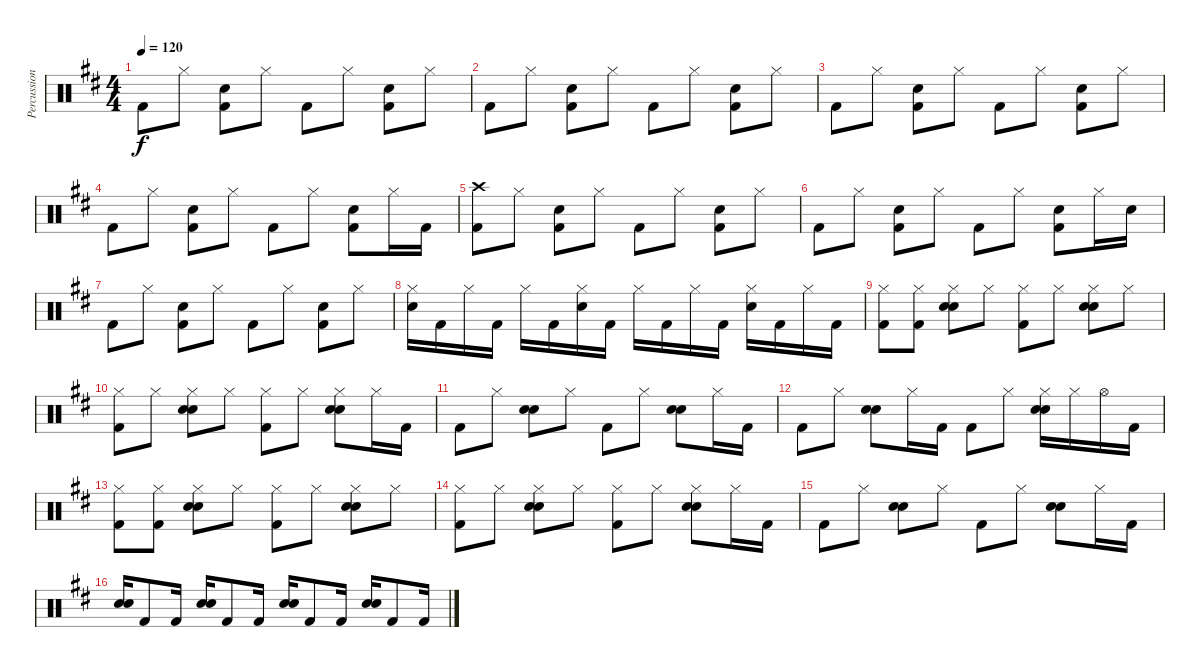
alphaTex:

\track ("Percussion" "Percussion") {instrument percussion}
\staff {score}
\articulation defaults
\ts (4 4)
\tempo 120
\clef neutral
\ks d "Kick (hit) 2".8{dy f} "Hi-Hat (closed)".8
("Snare (hit) 2" "Kick (hit) 2").8 "Hi-Hat (closed)".8 "Kick (hit) 2".8 "Hi-Hat (closed)".8 ("Snare (hit) 2" "Kick (hit) 2").8 "Hi-Hat (closed)".8 |
"Kick (hit) 2".8 "Hi-Hat (closed)".8 ("Snare (hit) 2" "Kick (hit) 2").8 "Hi-Hat (closed)".8 "Kick (hit) 2".8 "Hi-Hat (closed)".8 ("Snare (hit) 2" "Kick (hit) 2").8 "Hi-Hat (closed)".8 |
"Kick (hit) 2".8 "Hi-Hat (closed)".8 ("Snare (hit) 2" "Kick (hit) 2").8 "Hi-Hat (closed)".8 "Kick (hit) 2".8 "Hi-Hat (closed)".8 ("Snare (hit) 2" "Kick (hit) 2").8 "Hi-Hat (closed)".8 |
"Kick (hit) 2".8 "Hi-Hat (closed)".8 ("Snare (hit) 2" "Kick (hit) 2").8 "Hi-Hat (closed)".8 "Kick (hit) 2".8 "Hi-Hat (closed)".8 ("Snare (hit) 2" "Kick (hit) 2").8 "Hi-Hat (closed)".16 "Kick (hit) 2".16 |
("Crash high (hit)" "Kick (hit) 2").8 "Hi-Hat (closed)".8 ("Snare (hit) 2" "Kick (hit) 2").8 "Hi-Hat (closed)".8 "Kick (hit) 2".8 "Hi-Hat (closed)".8 ("Snare (hit) 2" "Kick (hit) 2").8 "Hi-Hat (closed)".8 |
"Kick (hit) 2".8 "Hi-Hat (closed)".8 ("Snare (hit) 2" "Kick (hit) 2").8 "Hi-Hat (closed)".8 "Kick (hit) 2".8 "Hi-Hat (closed)".8 ("Snare (hit) 2" "Kick (hit) 2").8 "Hi-Hat (closed)".16 "Snare (hit) 2".16 |
"Kick (hit) 2".8 "Hi-Hat (closed)".8 ("Snare (hit) 2" "Kick (hit) 2").8 "Hi-Hat (closed)".8 "Kick (hit) 2".8 "Hi-Hat (closed)".8 ("Snare (hit) 2" "Kick (hit) 2").8 "Hi-Hat (closed)".8 |
("Hi-Hat (closed)" "Snare (hit) 2").16 "Kick (hit) 2".16 "Hi-Hat (closed)".16 "Kick (hit) 2".16 "Hi-Hat (closed)".16 "Kick (hit) 2".16 ("Hi-Hat (closed)" "Snare (hit) 2").16 "Kick (hit) 2".16 "Hi-Hat (closed)".16 "Kick (hit) 2".16 "Hi-Hat (closed)".16 "Kick (hit) 2".16 ("Hi-Hat (closed)" "Snare (hit) 2").16 "Kick (hit) 2".16 "Hi-Hat (closed)".16 "Kick (hit) 2".16 |
("Hi-Hat (closed)" "Kick (hit) 2").8 ("Hi-Hat (closed)" "Kick (hit) 2").8 ("Hi-Hat (closed)" "Snare (hit) 2" "Hand Clap (hit)").8 "Hi-Hat (closed)".8 ("Hi-Hat (closed)" "Kick (hit) 2").8 "Hi-Hat (closed)".8 ("Hi-Hat (closed)" "Snare (hit) 2" "Hand Clap (hit)").8 "Hi-Hat (closed)".8 |
("Hi-Hat (closed)" "Kick (hit) 2").8 "Hi-Hat (closed)".8 ("Hi-Hat (closed)" "Snare (hit) 2" "Hand Clap (hit)").8 "Hi-Hat (closed)".8 ("Hi-Hat (closed)" "Kick (hit) 2").8 "Hi-Hat (closed)".8 ("Hi-Hat (closed)" "Snare (hit) 2" "Hand Clap (hit)").8 "Hi-Hat (closed)".16 "Kick (hit) 2".16 |
"Kick (hit) 2".8 "Hi-Hat (closed)".8 ("Snare (hit) 2" "Hand Clap (hit)").8 "Hi-Hat (closed)".8 "Kick (hit) 2".8 "Hi-Hat (closed)".8 ("Snare (hit) 2" "Hand Clap (hit)").8 "Hi-Hat (closed)".16 "Kick (hit) 2".16 |
"Kick (hit) 2".8 "Hi-Hat (closed)".8 ("Snare (hit) 2" "Hand Clap (hit)").8 "Hi-Hat (closed)".16 "Kick (hit) 2".16 "Kick (hit) 2".8 "Hi-Hat (closed)".8 ("Hi-Hat (closed)" "Snare (hit) 2" "Hand Clap (hit)").16 "Hi-Hat (closed)".16 "Hi-Hat (open)".16 "Kick (hit) 2".16 |
("Hi-Hat (closed)" "Kick (hit) 2").8 ("Hi-Hat (closed)" "Kick (hit) 2").8 ("Hi-Hat (closed)" "Snare (hit) 2" "Hand Clap (hit)").8 "Hi-Hat (closed)".8 ("Hi-Hat (closed)" "Kick (hit) 2").8 "Hi-Hat (closed)".8 ("Hi-Hat (closed)" "Snare (hit) 2" "Hand Clap (hit)").8 "Hi-Hat (closed)".8 |
("Hi-Hat (closed)" "Kick (hit) 2").8 "Hi-Hat (closed)".8 ("Hi-Hat (closed)" "Snare (hit) 2" "Hand Clap (hit)").8 "Hi-Hat (closed)".8 ("Hi-Hat (closed)" "Kick (hit) 2").8 "Hi-Hat (closed)".8 ("Hi-Hat (closed)" "Snare (hit) 2" "Hand Clap (hit)").8 "Hi-Hat (closed)".16 "Kick (hit) 2".16 |
"Kick (hit) 2".8 "Hi-Hat (closed)".8 ("Snare (hit) 2" "Hand Clap (hit)").8 "Hi-Hat (closed)".8 "Kick (hit) 2".8 "Hi-Hat (closed)".8 ("Snare (hit) 2" "Hand Clap (hit)").8 "Hi-Hat (closed)".16 "Kick (hit) 2".16 |
("Snare (hit) 2" "Hand Clap (hit)").16 "Kick (hit) 2".8 "Kick (hit) 2".16 ("Snare (hit) 2" "Hand Clap (hit)").16 "Kick (hit) 2".8 "Kick (hit) 2".16 ("Snare (hit) 2" "Hand Clap (hit)").16 "Kick (hit) 2".8 "Kick (hit) 2".16 ("Snare (hit) 2" "Hand Clap (hit)").16 "Kick (hit) 2".8 "Kick (hit) 2".16
